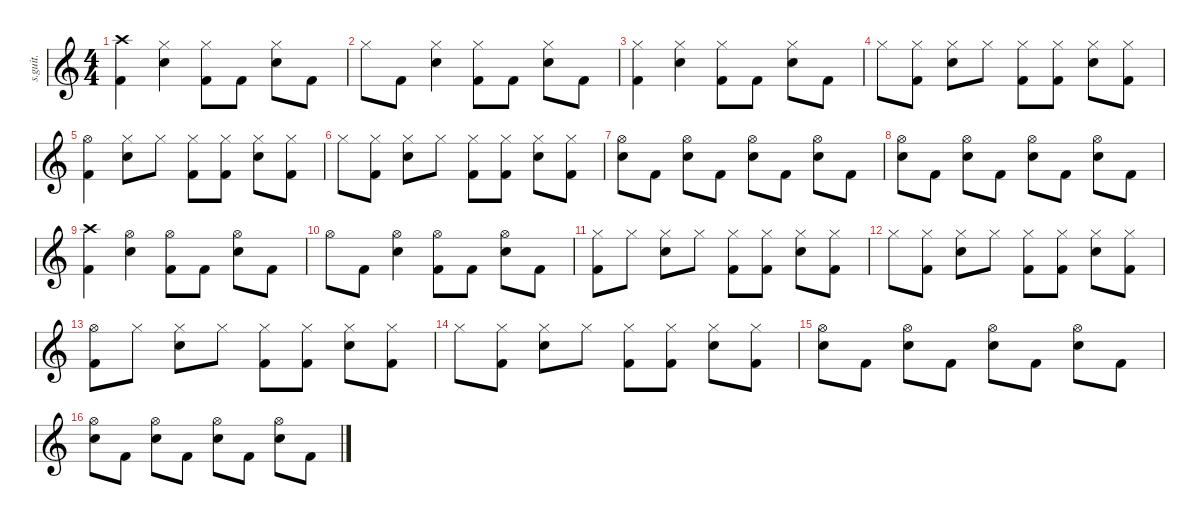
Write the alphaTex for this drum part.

\defaultSystemsLayout 4
\hideDynamics
\bracketExtendMode nobrackets
\track ("" "s.guit.") {instrument percussion}
\staff {score}
\articulation defaults
\ts (4 4)
\beaming (8 2 2 2 2)
\tempo (184 hide)
\clef g2
\ks c
("Crash high (hit)" "Kick (hit) 2").4{dy f} ("Hi-Hat (closed)" "Snare (hit) 2").4 ("Hi-Hat (closed)" "Kick (hit) 2").8 "Kick (hit) 2".8 ("Hi-Hat (closed)" "Snare (hit) 2").8 "Kick (hit) 2".8 |
"Hi-Hat (closed)".8 "Kick (hit) 2".8 ("Hi-Hat (closed)" "Snare (hit) 2").4 ("Hi-Hat (closed)" "Kick (hit) 2").8 "Kick (hit) 2".8 ("Hi-Hat (closed)" "Snare (hit) 2").8 "Kick (hit) 2".8 |
("Hi-Hat (closed)" "Kick (hit) 2").4 ("Hi-Hat (closed)" "Snare (hit) 2").4 ("Hi-Hat (closed)" "Kick (hit) 2").8 "Kick (hit) 2".8 ("Hi-Hat (closed)" "Snare (hit) 2").8 "Kick (hit) 2".8 |
"Hi-Hat (closed)".8 ("Hi-Hat (closed)" "Kick (hit) 2").8 ("Hi-Hat (closed)" "Snare (hit) 2").8 "Hi-Hat (closed)".8 ("Hi-Hat (closed)" "Kick (hit) 2").8 ("Hi-Hat (closed)" "Kick (hit) 2").8 ("Hi-Hat (closed)" "Snare (hit) 2").8 ("Hi-Hat (closed)" "Kick (hit) 2").8 |
("Hi-Hat (open)" "Kick (hit) 2").4 ("Hi-Hat (closed)" "Snare (hit) 2").8 "Hi-Hat (closed)".8 ("Hi-Hat (closed)" "Kick (hit) 2").8 ("Hi-Hat (closed)" "Kick (hit) 2").8 ("Hi-Hat (closed)" "Snare (hit) 2").8 ("Hi-Hat (closed)" "Kick (hit) 2").8 |
"Hi-Hat (closed)".8 ("Hi-Hat (closed)" "Kick (hit) 2").8 ("Hi-Hat (closed)" "Snare (hit) 2").8 "Hi-Hat (closed)".8 ("Hi-Hat (closed)" "Kick (hit) 2").8 ("Hi-Hat (closed)" "Kick (hit) 2").8 ("Hi-Hat (closed)" "Snare (hit) 2").8 ("Hi-Hat (closed)" "Kick (hit) 2").8 |
("Hi-Hat (open)" "Snare (hit) 2").8 "Kick (hit) 2".8 ("Hi-Hat (open)" "Snare (hit) 2").8 "Kick (hit) 2".8 ("Hi-Hat (open)" "Snare (hit) 2").8 "Kick (hit) 2".8 ("Hi-Hat (open)" "Snare (hit) 2").8 "Kick (hit) 2".8 |
("Hi-Hat (open)" "Snare (hit) 2").8 "Kick (hit) 2".8 ("Hi-Hat (open)" "Snare (hit) 2").8 "Kick (hit) 2".8 ("Hi-Hat (open)" "Snare (hit) 2").8 "Kick (hit) 2".8 ("Hi-Hat (open)" "Snare (hit) 2").8 "Kick (hit) 2".8 |
("Crash high (hit)" "Kick (hit) 2").4 ("Hi-Hat (open)" "Snare (hit) 2").4 ("Hi-Hat (open)" "Kick (hit) 2").8 "Kick (hit) 2".8 ("Hi-Hat (open)" "Snare (hit) 2").8 "Kick (hit) 2".8 |
"Hi-Hat (open)".8 "Kick (hit) 2".8 ("Hi-Hat (open)" "Snare (hit) 2").4 ("Hi-Hat (open)" "Kick (hit) 2").8 "Kick (hit) 2".8 ("Hi-Hat (open)" "Snare (hit) 2").8 "Kick (hit) 2".8 |
("Hi-Hat (closed)" "Kick (hit) 2").8 "Hi-Hat (closed)".8 ("Hi-Hat (closed)" "Snare (hit) 2").8 "Hi-Hat (closed)".8 ("Hi-Hat (closed)" "Kick (hit) 2").8 ("Hi-Hat (closed)" "Kick (hit) 2").8 ("Hi-Hat (closed)" "Snare (hit) 2").8 ("Hi-Hat (closed)" "Kick (hit) 2").8 |
"Hi-Hat (closed)".8 ("Hi-Hat (closed)" "Kick (hit) 2").8 ("Hi-Hat (closed)" "Snare (hit) 2").8 "Hi-Hat (closed)".8 ("Hi-Hat (closed)" "Kick (hit) 2").8 ("Hi-Hat (closed)" "Kick (hit) 2").8 ("Hi-Hat (closed)" "Snare (hit) 2").8 ("Hi-Hat (closed)" "Kick (hit) 2").8 |
("Hi-Hat (open)" "Kick (hit) 2").8 "Hi-Hat (closed)".8 ("Hi-Hat (closed)" "Snare (hit) 2").8 "Hi-Hat (closed)".8 ("Hi-Hat (closed)" "Kick (hit) 2").8 ("Hi-Hat (closed)" "Kick (hit) 2").8 ("Hi-Hat (closed)" "Snare (hit) 2").8 ("Hi-Hat (closed)" "Kick (hit) 2").8 |
"Hi-Hat (closed)".8 ("Hi-Hat (closed)" "Kick (hit) 2").8 ("Hi-Hat (closed)" "Snare (hit) 2").8 "Hi-Hat (closed)".8 ("Hi-Hat (closed)" "Kick (hit) 2").8 ("Hi-Hat (closed)" "Kick (hit) 2").8 ("Hi-Hat (closed)" "Snare (hit) 2").8 ("Hi-Hat (closed)" "Kick (hit) 2").8 |
("Hi-Hat (open)" "Snare (hit) 2").8 "Kick (hit) 2".8 ("Hi-Hat (open)" "Snare (hit) 2").8 "Kick (hit) 2".8 ("Hi-Hat (open)" "Snare (hit) 2").8 "Kick (hit) 2".8 ("Hi-Hat (open)" "Snare (hit) 2").8 "Kick (hit) 2".8 |
("Hi-Hat (open)" "Snare (hit) 2").8 "Kick (hit) 2".8 ("Hi-Hat (open)" "Snare (hit) 2").8 "Kick (hit) 2".8 ("Hi-Hat (open)" "Snare (hit) 2").8 "Kick (hit) 2".8 ("Hi-Hat (open)" "Snare (hit) 2").8 "Kick (hit) 2".8
